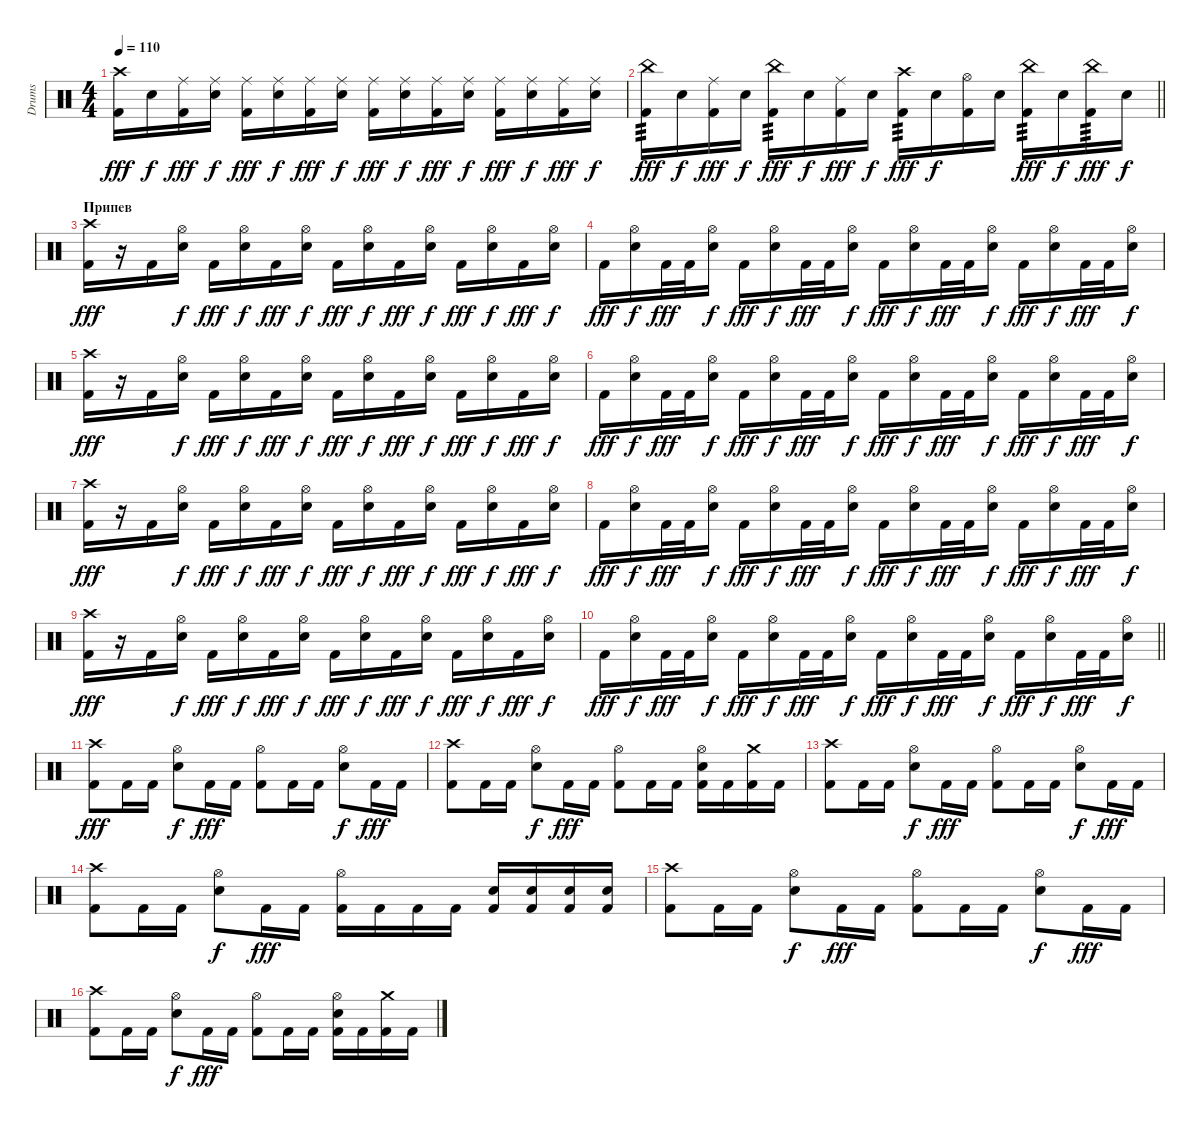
\track ("Drums" "Drums") {instrument percussion}
\staff {score}
\articulation defaults
\ts (4 4)
\tempo 110
\clef neutral
\ks c
("Crash high (hit)" "Kick (hit) 2").16{dy fff} "Snare (hit) 2".16{dy f} ("Ride (middle)" "Kick (hit) 2").16{dy fff} ("Ride (middle)" "Snare (hit) 2").16{dy f} ("Ride (middle)" "Kick (hit) 2").16{dy fff} ("Ride (middle)" "Snare (hit) 2").16{dy f} ("Ride (middle)" "Kick (hit) 2").16{dy fff} ("Ride (middle)" "Snare (hit) 2").16{dy f} ("Ride (middle)" "Kick (hit) 2").16{dy fff} ("Ride (middle)" "Snare (hit) 2").16{dy f} ("Ride (middle)" "Kick (hit) 2").16{dy fff} ("Ride (middle)" "Snare (hit) 2").16{dy f} ("Ride (middle)" "Kick (hit) 2").16{dy fff} ("Ride (middle)" "Snare (hit) 2").16{dy f} ("Ride (middle)" "Kick (hit) 2").16{dy fff} ("Ride (middle)" "Snare (hit) 2").16{dy f} |
\barLineRight lightlight
("China (hit)" "Kick (hit) 2").16{tp 3 dy fff} "Snare (hit) 2".16{dy f} ("Ride (middle)" "Kick (hit) 2").16{dy fff} "Snare (hit) 2".16{dy f} ("China (hit)" "Kick (hit) 2").16{tp 3 dy fff} "Snare (hit) 2".16{dy f} ("Ride (middle)" "Kick (hit) 2").16{dy fff} "Snare (hit) 2".16{dy f} ("Crash high (hit)" "Kick (hit) 2").16{tp 3 dy fff} "Snare (hit) 2".16{dy f} ("Hi-Hat (open)" "Kick (hit) 2").16 "Snare (hit) 2".16 ("China (hit)" "Kick (hit) 2").16{tp 3 dy fff} "Snare (hit) 2".16{dy f} ("China (hit)" "Kick (hit) 2").16{tp 3 dy fff} "Snare (hit) 2".16{dy f} |
\section ("" "Припев")
("Crash high (hit)" "Kick (hit) 2").16{dy fff} r.16 "Kick (hit) 2".16 ("Hi-Hat (open)" "Snare (hit) 2").16{dy f} "Kick (hit) 2".16{dy fff} ("Hi-Hat (open)" "Snare (hit) 2").16{dy f} "Kick (hit) 2".16{dy fff} ("Hi-Hat (open)" "Snare (hit) 2").16{dy f} "Kick (hit) 2".16{dy fff} ("Hi-Hat (open)" "Snare (hit) 2").16{dy f} "Kick (hit) 2".16{dy fff} ("Hi-Hat (open)" "Snare (hit) 2").16{dy f} "Kick (hit) 2".16{dy fff} ("Hi-Hat (open)" "Snare (hit) 2").16{dy f} "Kick (hit) 2".16{dy fff} ("Hi-Hat (open)" "Snare (hit) 2").16{dy f} |
"Kick (hit) 2".16{dy fff} ("Hi-Hat (open)" "Snare (hit) 2").16{dy f} "Kick (hit) 2".32{dy fff} "Kick (hit) 2".32 ("Hi-Hat (open)" "Snare (hit) 2").16{dy f} "Kick (hit) 2".16{dy fff} ("Hi-Hat (open)" "Snare (hit) 2").16{dy f} "Kick (hit) 2".32{dy fff} "Kick (hit) 2".32 ("Hi-Hat (open)" "Snare (hit) 2").16{dy f} "Kick (hit) 2".16{dy fff} ("Hi-Hat (open)" "Snare (hit) 2").16{dy f} "Kick (hit) 2".32{dy fff} "Kick (hit) 2".32 ("Hi-Hat (open)" "Snare (hit) 2").16{dy f} "Kick (hit) 2".16{dy fff} ("Hi-Hat (open)" "Snare (hit) 2").16{dy f} "Kick (hit) 2".32{dy fff} "Kick (hit) 2".32 ("Hi-Hat (open)" "Snare (hit) 2").16{dy f} |
("Crash high (hit)" "Kick (hit) 2").16{dy fff} r.16 "Kick (hit) 2".16 ("Hi-Hat (open)" "Snare (hit) 2").16{dy f} "Kick (hit) 2".16{dy fff} ("Hi-Hat (open)" "Snare (hit) 2").16{dy f} "Kick (hit) 2".16{dy fff} ("Hi-Hat (open)" "Snare (hit) 2").16{dy f} "Kick (hit) 2".16{dy fff} ("Hi-Hat (open)" "Snare (hit) 2").16{dy f} "Kick (hit) 2".16{dy fff} ("Hi-Hat (open)" "Snare (hit) 2").16{dy f} "Kick (hit) 2".16{dy fff} ("Hi-Hat (open)" "Snare (hit) 2").16{dy f} "Kick (hit) 2".16{dy fff} ("Hi-Hat (open)" "Snare (hit) 2").16{dy f} |
"Kick (hit) 2".16{dy fff} ("Hi-Hat (open)" "Snare (hit) 2").16{dy f} "Kick (hit) 2".32{dy fff} "Kick (hit) 2".32 ("Hi-Hat (open)" "Snare (hit) 2").16{dy f} "Kick (hit) 2".16{dy fff} ("Hi-Hat (open)" "Snare (hit) 2").16{dy f} "Kick (hit) 2".32{dy fff} "Kick (hit) 2".32 ("Hi-Hat (open)" "Snare (hit) 2").16{dy f} "Kick (hit) 2".16{dy fff} ("Hi-Hat (open)" "Snare (hit) 2").16{dy f} "Kick (hit) 2".32{dy fff} "Kick (hit) 2".32 ("Hi-Hat (open)" "Snare (hit) 2").16{dy f} "Kick (hit) 2".16{dy fff} ("Hi-Hat (open)" "Snare (hit) 2").16{dy f} "Kick (hit) 2".32{dy fff} "Kick (hit) 2".32 ("Hi-Hat (open)" "Snare (hit) 2").16{dy f} |
("Crash high (hit)" "Kick (hit) 2").16{dy fff} r.16 "Kick (hit) 2".16 ("Hi-Hat (open)" "Snare (hit) 2").16{dy f} "Kick (hit) 2".16{dy fff} ("Hi-Hat (open)" "Snare (hit) 2").16{dy f} "Kick (hit) 2".16{dy fff} ("Hi-Hat (open)" "Snare (hit) 2").16{dy f} "Kick (hit) 2".16{dy fff} ("Hi-Hat (open)" "Snare (hit) 2").16{dy f} "Kick (hit) 2".16{dy fff} ("Hi-Hat (open)" "Snare (hit) 2").16{dy f} "Kick (hit) 2".16{dy fff} ("Hi-Hat (open)" "Snare (hit) 2").16{dy f} "Kick (hit) 2".16{dy fff} ("Hi-Hat (open)" "Snare (hit) 2").16{dy f} |
"Kick (hit) 2".16{dy fff} ("Hi-Hat (open)" "Snare (hit) 2").16{dy f} "Kick (hit) 2".32{dy fff} "Kick (hit) 2".32 ("Hi-Hat (open)" "Snare (hit) 2").16{dy f} "Kick (hit) 2".16{dy fff} ("Hi-Hat (open)" "Snare (hit) 2").16{dy f} "Kick (hit) 2".32{dy fff} "Kick (hit) 2".32 ("Hi-Hat (open)" "Snare (hit) 2").16{dy f} "Kick (hit) 2".16{dy fff} ("Hi-Hat (open)" "Snare (hit) 2").16{dy f} "Kick (hit) 2".32{dy fff} "Kick (hit) 2".32 ("Hi-Hat (open)" "Snare (hit) 2").16{dy f} "Kick (hit) 2".16{dy fff} ("Hi-Hat (open)" "Snare (hit) 2").16{dy f} "Kick (hit) 2".32{dy fff} "Kick (hit) 2".32 ("Hi-Hat (open)" "Snare (hit) 2").16{dy f} |
("Crash high (hit)" "Kick (hit) 2").16{dy fff} r.16 "Kick (hit) 2".16 ("Hi-Hat (open)" "Snare (hit) 2").16{dy f} "Kick (hit) 2".16{dy fff} ("Hi-Hat (open)" "Snare (hit) 2").16{dy f} "Kick (hit) 2".16{dy fff} ("Hi-Hat (open)" "Snare (hit) 2").16{dy f} "Kick (hit) 2".16{dy fff} ("Hi-Hat (open)" "Snare (hit) 2").16{dy f} "Kick (hit) 2".16{dy fff} ("Hi-Hat (open)" "Snare (hit) 2").16{dy f} "Kick (hit) 2".16{dy fff} ("Hi-Hat (open)" "Snare (hit) 2").16{dy f} "Kick (hit) 2".16{dy fff} ("Hi-Hat (open)" "Snare (hit) 2").16{dy f} |
\barLineRight lightlight "Kick (hit) 2".16{dy fff}
("Hi-Hat (open)" "Snare (hit) 2").16{dy f} "Kick (hit) 2".32{dy fff} "Kick (hit) 2".32 ("Hi-Hat (open)" "Snare (hit) 2").16{dy f} "Kick (hit) 2".16{dy fff} ("Hi-Hat (open)" "Snare (hit) 2").16{dy f} "Kick (hit) 2".32{dy fff} "Kick (hit) 2".32 ("Hi-Hat (open)" "Snare (hit) 2").16{dy f} "Kick (hit) 2".16{dy fff} ("Hi-Hat (open)" "Snare (hit) 2").16{dy f} "Kick (hit) 2".32{dy fff} "Kick (hit) 2".32 ("Hi-Hat (open)" "Snare (hit) 2").16{dy f} "Kick (hit) 2".16{dy fff} ("Hi-Hat (open)" "Snare (hit) 2").16{dy f} "Kick (hit) 2".32{dy fff} "Kick (hit) 2".32 ("Hi-Hat (open)" "Snare (hit) 2").16{dy f} |
("Crash high (hit)" "Kick (hit) 2").8{dy fff} "Kick (hit) 2".16 "Kick (hit) 2".16 ("Hi-Hat (open)" "Snare (hit) 2").8{dy f} "Kick (hit) 2".16{dy fff} "Kick (hit) 2".16 ("Hi-Hat (open)" "Kick (hit) 2").8 "Kick (hit) 2".16 "Kick (hit) 2".16 ("Hi-Hat (open)" "Snare (hit) 2").8{dy f} "Kick (hit) 2".16{dy fff} "Kick (hit) 2".16 |
("Crash high (hit)" "Kick (hit) 2").8 "Kick (hit) 2".16 "Kick (hit) 2".16 ("Hi-Hat (open)" "Snare (hit) 2").8{dy f} "Kick (hit) 2".16{dy fff} "Kick (hit) 2".16 ("Hi-Hat (open)" "Kick (hit) 2").8 "Kick (hit) 2".16 "Kick (hit) 2".16 ("Hi-Hat (open)" "Snare (hit) 2" "Kick (hit) 2").16 "Kick (hit) 2".16 ("Crash medium (hit)" "Kick (hit) 2").16 "Kick (hit) 2".16 |
("Crash high (hit)" "Kick (hit) 2").8 "Kick (hit) 2".16 "Kick (hit) 2".16 ("Hi-Hat (open)" "Snare (hit) 2").8{dy f} "Kick (hit) 2".16{dy fff} "Kick (hit) 2".16 ("Hi-Hat (open)" "Kick (hit) 2").8 "Kick (hit) 2".16 "Kick (hit) 2".16 ("Hi-Hat (open)" "Snare (hit) 2").8{dy f} "Kick (hit) 2".16{dy fff} "Kick (hit) 2".16 |
("Crash high (hit)" "Kick (hit) 2").8 "Kick (hit) 2".16 "Kick (hit) 2".16 ("Hi-Hat (open)" "Snare (hit) 2").8{dy f} "Kick (hit) 2".16{dy fff} "Kick (hit) 2".16 ("Hi-Hat (open)" "Kick (hit) 2").16 "Kick (hit) 2".16 "Kick (hit) 2".16 "Kick (hit) 2".16 ("Snare (hit) 2" "Kick (hit) 2").16 ("Snare (hit) 2" "Kick (hit) 2").16 ("Snare (hit) 2" "Kick (hit) 2").16 ("Snare (hit) 2" "Kick (hit) 2").16 |
("Crash high (hit)" "Kick (hit) 2").8 "Kick (hit) 2".16 "Kick (hit) 2".16 ("Hi-Hat (open)" "Snare (hit) 2").8{dy f} "Kick (hit) 2".16{dy fff} "Kick (hit) 2".16 ("Hi-Hat (open)" "Kick (hit) 2").8 "Kick (hit) 2".16 "Kick (hit) 2".16 ("Hi-Hat (open)" "Snare (hit) 2").8{dy f} "Kick (hit) 2".16{dy fff} "Kick (hit) 2".16 |
("Crash high (hit)" "Kick (hit) 2").8 "Kick (hit) 2".16 "Kick (hit) 2".16 ("Hi-Hat (open)" "Snare (hit) 2").8{dy f} "Kick (hit) 2".16{dy fff} "Kick (hit) 2".16 ("Hi-Hat (open)" "Kick (hit) 2").8 "Kick (hit) 2".16 "Kick (hit) 2".16 ("Hi-Hat (open)" "Snare (hit) 2" "Kick (hit) 2").16 "Kick (hit) 2".16 ("Crash medium (hit)" "Kick (hit) 2").16 "Kick (hit) 2".16
